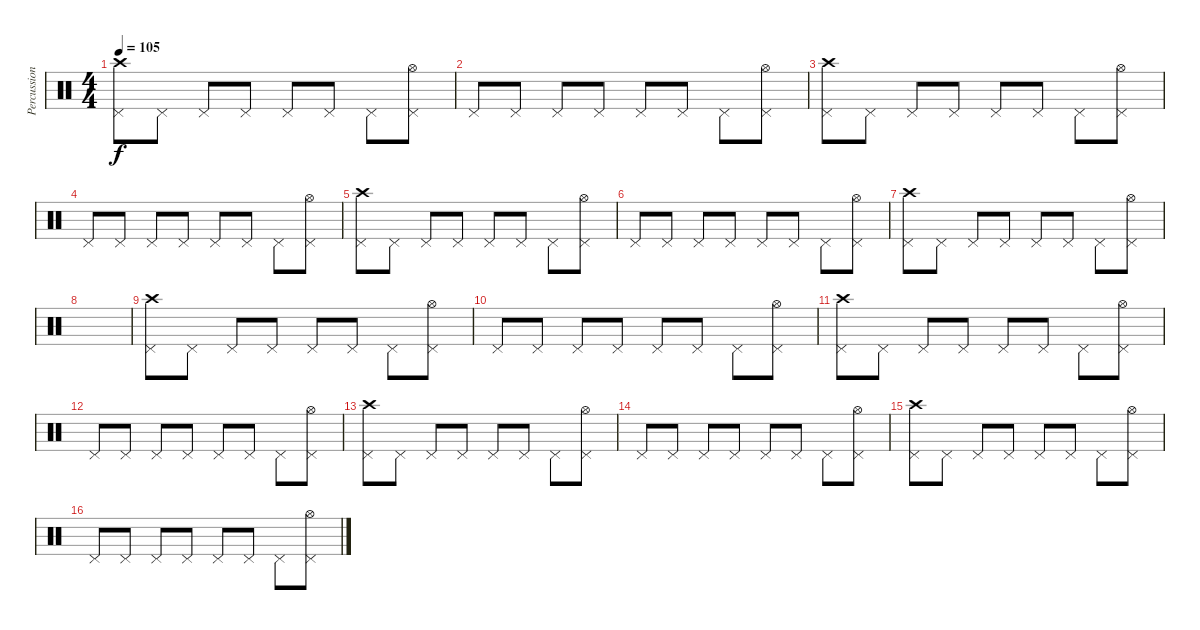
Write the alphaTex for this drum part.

\track ("Percussion" "Percussion") {instrument percussion}
\staff {score}
\articulation defaults
\ts (4 4)
\tempo 105
\clef neutral
\ks c
("Pedal Hi-Hat (hit)" "Crash high (hit)").8{dy f} "Pedal Hi-Hat (hit)".8 "Pedal Hi-Hat (hit)".8 "Pedal Hi-Hat (hit)".8 "Pedal Hi-Hat (hit)".8 "Pedal Hi-Hat (hit)".8 "Pedal Hi-Hat (hit)".8 ("Pedal Hi-Hat (hit)" "Hi-Hat (open)").8 |
"Pedal Hi-Hat (hit)".8 "Pedal Hi-Hat (hit)".8 "Pedal Hi-Hat (hit)".8 "Pedal Hi-Hat (hit)".8 "Pedal Hi-Hat (hit)".8 "Pedal Hi-Hat (hit)".8 "Pedal Hi-Hat (hit)".8 ("Pedal Hi-Hat (hit)" "Hi-Hat (open)").8 |
("Pedal Hi-Hat (hit)" "Crash high (hit)").8 "Pedal Hi-Hat (hit)".8 "Pedal Hi-Hat (hit)".8 "Pedal Hi-Hat (hit)".8 "Pedal Hi-Hat (hit)".8 "Pedal Hi-Hat (hit)".8 "Pedal Hi-Hat (hit)".8 ("Pedal Hi-Hat (hit)" "Hi-Hat (open)").8 |
"Pedal Hi-Hat (hit)".8 "Pedal Hi-Hat (hit)".8 "Pedal Hi-Hat (hit)".8 "Pedal Hi-Hat (hit)".8 "Pedal Hi-Hat (hit)".8 "Pedal Hi-Hat (hit)".8 "Pedal Hi-Hat (hit)".8 ("Pedal Hi-Hat (hit)" "Hi-Hat (open)").8 |
("Pedal Hi-Hat (hit)" "Crash high (hit)").8 "Pedal Hi-Hat (hit)".8 "Pedal Hi-Hat (hit)".8 "Pedal Hi-Hat (hit)".8 "Pedal Hi-Hat (hit)".8 "Pedal Hi-Hat (hit)".8 "Pedal Hi-Hat (hit)".8 ("Pedal Hi-Hat (hit)" "Hi-Hat (open)").8 |
"Pedal Hi-Hat (hit)".8 "Pedal Hi-Hat (hit)".8 "Pedal Hi-Hat (hit)".8 "Pedal Hi-Hat (hit)".8 "Pedal Hi-Hat (hit)".8 "Pedal Hi-Hat (hit)".8 "Pedal Hi-Hat (hit)".8 ("Pedal Hi-Hat (hit)" "Hi-Hat (open)").8 |
("Pedal Hi-Hat (hit)" "Crash high (hit)").8 "Pedal Hi-Hat (hit)".8 "Pedal Hi-Hat (hit)".8 "Pedal Hi-Hat (hit)".8 "Pedal Hi-Hat (hit)".8 "Pedal Hi-Hat (hit)".8 "Pedal Hi-Hat (hit)".8 ("Pedal Hi-Hat (hit)" "Hi-Hat (open)").8 |
|
("Pedal Hi-Hat (hit)" "Crash high (hit)").8 "Pedal Hi-Hat (hit)".8 "Pedal Hi-Hat (hit)".8 "Pedal Hi-Hat (hit)".8 "Pedal Hi-Hat (hit)".8 "Pedal Hi-Hat (hit)".8 "Pedal Hi-Hat (hit)".8 ("Pedal Hi-Hat (hit)" "Hi-Hat (open)").8 |
"Pedal Hi-Hat (hit)".8 "Pedal Hi-Hat (hit)".8 "Pedal Hi-Hat (hit)".8 "Pedal Hi-Hat (hit)".8 "Pedal Hi-Hat (hit)".8 "Pedal Hi-Hat (hit)".8 "Pedal Hi-Hat (hit)".8 ("Pedal Hi-Hat (hit)" "Hi-Hat (open)").8 |
("Pedal Hi-Hat (hit)" "Crash high (hit)").8 "Pedal Hi-Hat (hit)".8 "Pedal Hi-Hat (hit)".8 "Pedal Hi-Hat (hit)".8 "Pedal Hi-Hat (hit)".8 "Pedal Hi-Hat (hit)".8 "Pedal Hi-Hat (hit)".8 ("Pedal Hi-Hat (hit)" "Hi-Hat (open)").8 |
"Pedal Hi-Hat (hit)".8 "Pedal Hi-Hat (hit)".8 "Pedal Hi-Hat (hit)".8 "Pedal Hi-Hat (hit)".8 "Pedal Hi-Hat (hit)".8 "Pedal Hi-Hat (hit)".8 "Pedal Hi-Hat (hit)".8 ("Pedal Hi-Hat (hit)" "Hi-Hat (open)").8 |
("Pedal Hi-Hat (hit)" "Crash high (hit)").8 "Pedal Hi-Hat (hit)".8 "Pedal Hi-Hat (hit)".8 "Pedal Hi-Hat (hit)".8 "Pedal Hi-Hat (hit)".8 "Pedal Hi-Hat (hit)".8 "Pedal Hi-Hat (hit)".8 ("Pedal Hi-Hat (hit)" "Hi-Hat (open)").8 |
"Pedal Hi-Hat (hit)".8 "Pedal Hi-Hat (hit)".8 "Pedal Hi-Hat (hit)".8 "Pedal Hi-Hat (hit)".8 "Pedal Hi-Hat (hit)".8 "Pedal Hi-Hat (hit)".8 "Pedal Hi-Hat (hit)".8 ("Pedal Hi-Hat (hit)" "Hi-Hat (open)").8 |
("Pedal Hi-Hat (hit)" "Crash high (hit)").8 "Pedal Hi-Hat (hit)".8 "Pedal Hi-Hat (hit)".8 "Pedal Hi-Hat (hit)".8 "Pedal Hi-Hat (hit)".8 "Pedal Hi-Hat (hit)".8 "Pedal Hi-Hat (hit)".8 ("Pedal Hi-Hat (hit)" "Hi-Hat (open)").8 |
"Pedal Hi-Hat (hit)".8 "Pedal Hi-Hat (hit)".8 "Pedal Hi-Hat (hit)".8 "Pedal Hi-Hat (hit)".8 "Pedal Hi-Hat (hit)".8 "Pedal Hi-Hat (hit)".8 "Pedal Hi-Hat (hit)".8 ("Pedal Hi-Hat (hit)" "Hi-Hat (open)").8
